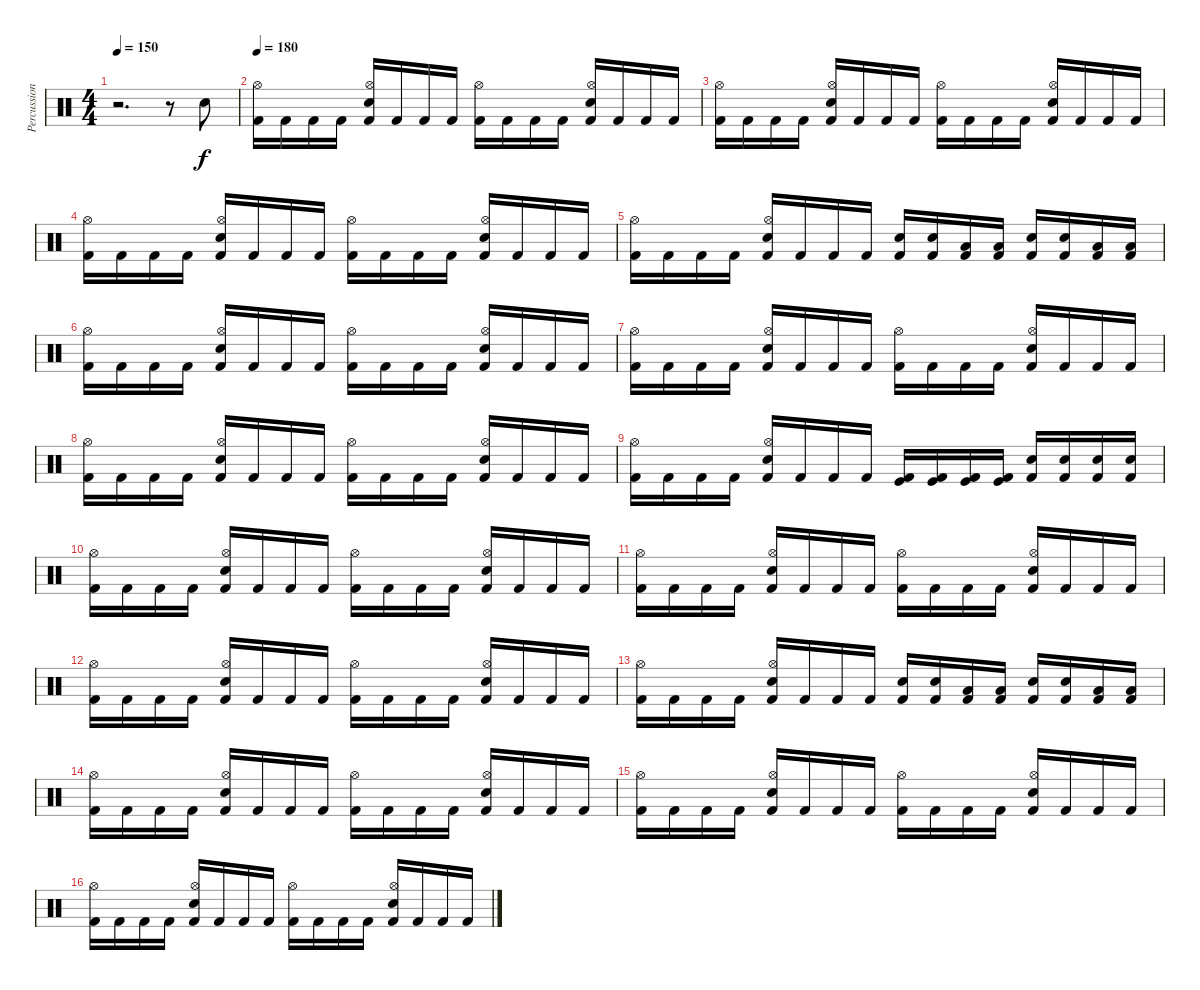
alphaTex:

\track ("Percussion" "Percussion") {instrument percussion}
\staff {score}
\articulation defaults
\ts (4 4)
\tempo 150
\clef neutral
\ks c
r.2{d dy f} r.8 "Electric Snare (hit)".8 |
\tempo 180
("Hi-Hat (open)" "Kick (hit) 2").16 "Kick (hit) 2".16 "Kick (hit) 2".16 "Kick (hit) 2".16 ("Hi-Hat (open)" "Kick (hit) 2" "Electric Snare (hit)").16 "Kick (hit) 2".16 "Kick (hit) 2".16 "Kick (hit) 2".16 ("Hi-Hat (open)" "Kick (hit) 2").16 "Kick (hit) 2".16 "Kick (hit) 2".16 "Kick (hit) 2".16 ("Hi-Hat (open)" "Kick (hit) 2" "Electric Snare (hit)").16 "Kick (hit) 2".16 "Kick (hit) 2".16 "Kick (hit) 2".16 |
("Hi-Hat (open)" "Kick (hit) 2").16 "Kick (hit) 2".16 "Kick (hit) 2".16 "Kick (hit) 2".16 ("Hi-Hat (open)" "Kick (hit) 2" "Electric Snare (hit)").16 "Kick (hit) 2".16 "Kick (hit) 2".16 "Kick (hit) 2".16 ("Hi-Hat (open)" "Kick (hit) 2").16 "Kick (hit) 2".16 "Kick (hit) 2".16 "Kick (hit) 2".16 ("Hi-Hat (open)" "Kick (hit) 2" "Electric Snare (hit)").16 "Kick (hit) 2".16 "Kick (hit) 2".16 "Kick (hit) 2".16 |
("Hi-Hat (open)" "Kick (hit) 2").16 "Kick (hit) 2".16 "Kick (hit) 2".16 "Kick (hit) 2".16 ("Hi-Hat (open)" "Kick (hit) 2" "Electric Snare (hit)").16 "Kick (hit) 2".16 "Kick (hit) 2".16 "Kick (hit) 2".16 ("Hi-Hat (open)" "Kick (hit) 2").16 "Kick (hit) 2".16 "Kick (hit) 2".16 "Kick (hit) 2".16 ("Hi-Hat (open)" "Kick (hit) 2" "Electric Snare (hit)").16 "Kick (hit) 2".16 "Kick (hit) 2".16 "Kick (hit) 2".16 |
("Hi-Hat (open)" "Kick (hit) 2").16 "Kick (hit) 2".16 "Kick (hit) 2".16 "Kick (hit) 2".16 ("Hi-Hat (open)" "Kick (hit) 2" "Electric Snare (hit)").16 "Kick (hit) 2".16 "Kick (hit) 2".16 "Kick (hit) 2".16 ("Electric Snare (hit)" "Kick (hit) 2").16 ("Electric Snare (hit)" "Kick (hit) 2").16 ("Low Floor Tom (hit)" "Kick (hit) 2").16 ("Low Floor Tom (hit)" "Kick (hit) 2").16 ("Electric Snare (hit)" "Kick (hit) 2").16 ("Electric Snare (hit)" "Kick (hit) 2").16 ("Low Floor Tom (hit)" "Kick (hit) 2").16 ("Low Floor Tom (hit)" "Kick (hit) 2").16 |
("Hi-Hat (open)" "Kick (hit) 2").16 "Kick (hit) 2".16 "Kick (hit) 2".16 "Kick (hit) 2".16 ("Hi-Hat (open)" "Kick (hit) 2" "Electric Snare (hit)").16 "Kick (hit) 2".16 "Kick (hit) 2".16 "Kick (hit) 2".16 ("Hi-Hat (open)" "Kick (hit) 2").16 "Kick (hit) 2".16 "Kick (hit) 2".16 "Kick (hit) 2".16 ("Hi-Hat (open)" "Kick (hit) 2" "Electric Snare (hit)").16 "Kick (hit) 2".16 "Kick (hit) 2".16 "Kick (hit) 2".16 |
("Hi-Hat (open)" "Kick (hit) 2").16 "Kick (hit) 2".16 "Kick (hit) 2".16 "Kick (hit) 2".16 ("Hi-Hat (open)" "Kick (hit) 2" "Electric Snare (hit)").16 "Kick (hit) 2".16 "Kick (hit) 2".16 "Kick (hit) 2".16 ("Hi-Hat (open)" "Kick (hit) 2").16 "Kick (hit) 2".16 "Kick (hit) 2".16 "Kick (hit) 2".16 ("Hi-Hat (open)" "Kick (hit) 2" "Electric Snare (hit)").16 "Kick (hit) 2".16 "Kick (hit) 2".16 "Kick (hit) 2".16 |
("Hi-Hat (open)" "Kick (hit) 2").16 "Kick (hit) 2".16 "Kick (hit) 2".16 "Kick (hit) 2".16 ("Hi-Hat (open)" "Kick (hit) 2" "Electric Snare (hit)").16 "Kick (hit) 2".16 "Kick (hit) 2".16 "Kick (hit) 2".16 ("Hi-Hat (open)" "Kick (hit) 2").16 "Kick (hit) 2".16 "Kick (hit) 2".16 "Kick (hit) 2".16 ("Hi-Hat (open)" "Kick (hit) 2" "Electric Snare (hit)").16 "Kick (hit) 2".16 "Kick (hit) 2".16 "Kick (hit) 2".16 |
("Hi-Hat (open)" "Kick (hit) 2").16 "Kick (hit) 2".16 "Kick (hit) 2".16 "Kick (hit) 2".16 ("Hi-Hat (open)" "Kick (hit) 2" "Electric Snare (hit)").16 "Kick (hit) 2".16 "Kick (hit) 2".16 "Kick (hit) 2".16 ("Kick (hit)" "Kick (hit) 2").16 ("Kick (hit)" "Kick (hit) 2").16 ("Kick (hit)" "Kick (hit) 2").16 ("Kick (hit)" "Kick (hit) 2").16 ("Electric Snare (hit)" "Kick (hit) 2").16 ("Electric Snare (hit)" "Kick (hit) 2").16 ("Electric Snare (hit)" "Kick (hit) 2").16 ("Electric Snare (hit)" "Kick (hit) 2").16 |
("Hi-Hat (open)" "Kick (hit) 2").16 "Kick (hit) 2".16 "Kick (hit) 2".16 "Kick (hit) 2".16 ("Hi-Hat (open)" "Kick (hit) 2" "Electric Snare (hit)").16 "Kick (hit) 2".16 "Kick (hit) 2".16 "Kick (hit) 2".16 ("Hi-Hat (open)" "Kick (hit) 2").16 "Kick (hit) 2".16 "Kick (hit) 2".16 "Kick (hit) 2".16 ("Hi-Hat (open)" "Kick (hit) 2" "Electric Snare (hit)").16 "Kick (hit) 2".16 "Kick (hit) 2".16 "Kick (hit) 2".16 |
("Hi-Hat (open)" "Kick (hit) 2").16 "Kick (hit) 2".16 "Kick (hit) 2".16 "Kick (hit) 2".16 ("Hi-Hat (open)" "Kick (hit) 2" "Electric Snare (hit)").16 "Kick (hit) 2".16 "Kick (hit) 2".16 "Kick (hit) 2".16 ("Hi-Hat (open)" "Kick (hit) 2").16 "Kick (hit) 2".16 "Kick (hit) 2".16 "Kick (hit) 2".16 ("Hi-Hat (open)" "Kick (hit) 2" "Electric Snare (hit)").16 "Kick (hit) 2".16 "Kick (hit) 2".16 "Kick (hit) 2".16 |
("Hi-Hat (open)" "Kick (hit) 2").16 "Kick (hit) 2".16 "Kick (hit) 2".16 "Kick (hit) 2".16 ("Hi-Hat (open)" "Kick (hit) 2" "Electric Snare (hit)").16 "Kick (hit) 2".16 "Kick (hit) 2".16 "Kick (hit) 2".16 ("Hi-Hat (open)" "Kick (hit) 2").16 "Kick (hit) 2".16 "Kick (hit) 2".16 "Kick (hit) 2".16 ("Hi-Hat (open)" "Kick (hit) 2" "Electric Snare (hit)").16 "Kick (hit) 2".16 "Kick (hit) 2".16 "Kick (hit) 2".16 |
("Hi-Hat (open)" "Kick (hit) 2").16 "Kick (hit) 2".16 "Kick (hit) 2".16 "Kick (hit) 2".16 ("Hi-Hat (open)" "Kick (hit) 2" "Electric Snare (hit)").16 "Kick (hit) 2".16 "Kick (hit) 2".16 "Kick (hit) 2".16 ("Electric Snare (hit)" "Kick (hit) 2").16 ("Electric Snare (hit)" "Kick (hit) 2").16 ("Low Floor Tom (hit)" "Kick (hit) 2").16 ("Low Floor Tom (hit)" "Kick (hit) 2").16 ("Electric Snare (hit)" "Kick (hit) 2").16 ("Electric Snare (hit)" "Kick (hit) 2").16 ("Low Floor Tom (hit)" "Kick (hit) 2").16 ("Low Floor Tom (hit)" "Kick (hit) 2").16 |
("Hi-Hat (open)" "Kick (hit) 2").16 "Kick (hit) 2".16 "Kick (hit) 2".16 "Kick (hit) 2".16 ("Hi-Hat (open)" "Kick (hit) 2" "Electric Snare (hit)").16 "Kick (hit) 2".16 "Kick (hit) 2".16 "Kick (hit) 2".16 ("Hi-Hat (open)" "Kick (hit) 2").16 "Kick (hit) 2".16 "Kick (hit) 2".16 "Kick (hit) 2".16 ("Hi-Hat (open)" "Kick (hit) 2" "Electric Snare (hit)").16 "Kick (hit) 2".16 "Kick (hit) 2".16 "Kick (hit) 2".16 |
("Hi-Hat (open)" "Kick (hit) 2").16 "Kick (hit) 2".16 "Kick (hit) 2".16 "Kick (hit) 2".16 ("Hi-Hat (open)" "Kick (hit) 2" "Electric Snare (hit)").16 "Kick (hit) 2".16 "Kick (hit) 2".16 "Kick (hit) 2".16 ("Hi-Hat (open)" "Kick (hit) 2").16 "Kick (hit) 2".16 "Kick (hit) 2".16 "Kick (hit) 2".16 ("Hi-Hat (open)" "Kick (hit) 2" "Electric Snare (hit)").16 "Kick (hit) 2".16 "Kick (hit) 2".16 "Kick (hit) 2".16 |
("Hi-Hat (open)" "Kick (hit) 2").16 "Kick (hit) 2".16 "Kick (hit) 2".16 "Kick (hit) 2".16 ("Hi-Hat (open)" "Kick (hit) 2" "Electric Snare (hit)").16 "Kick (hit) 2".16 "Kick (hit) 2".16 "Kick (hit) 2".16 ("Hi-Hat (open)" "Kick (hit) 2").16 "Kick (hit) 2".16 "Kick (hit) 2".16 "Kick (hit) 2".16 ("Hi-Hat (open)" "Kick (hit) 2" "Electric Snare (hit)").16 "Kick (hit) 2".16 "Kick (hit) 2".16 "Kick (hit) 2".16
